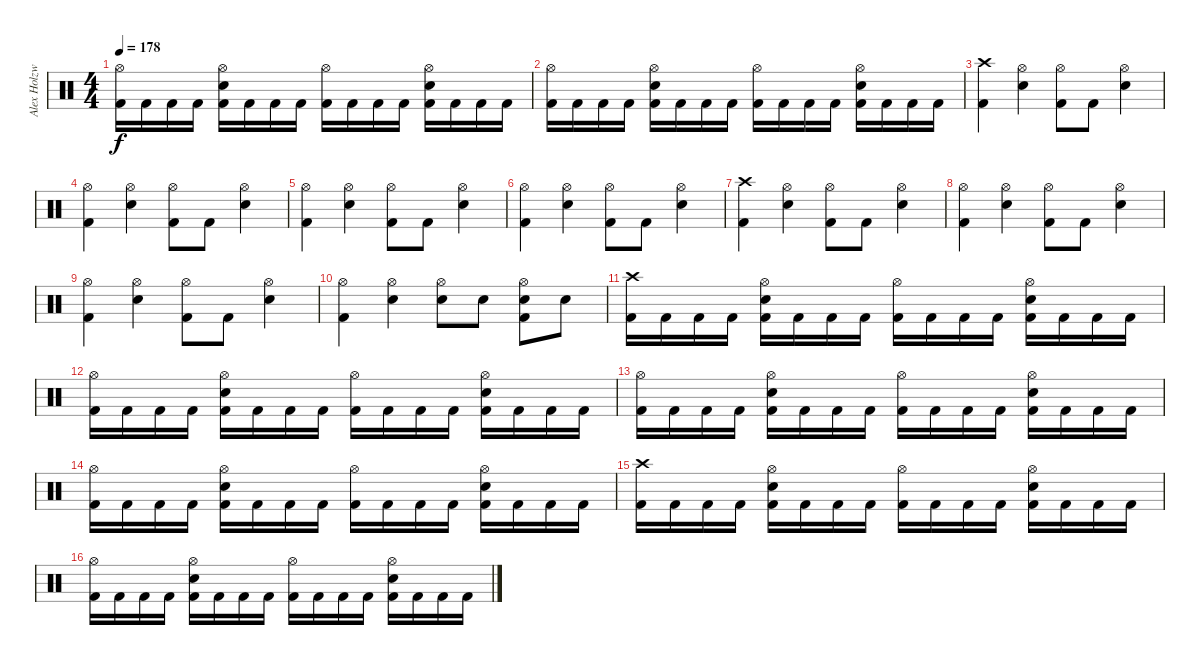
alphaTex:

\track ("Alex Holzwarth" "Alex Holzw") {instrument percussion}
\staff {score}
\articulation defaults
\ts (4 4)
\tempo 178
\clef neutral
\ks c
("Hi-Hat (open)" "Kick (hit) 2").16{dy f} "Kick (hit) 2".16 "Kick (hit) 2".16 "Kick (hit) 2".16 ("Hi-Hat (open)" "Electric Snare (hit)" "Kick (hit) 2").16 "Kick (hit) 2".16 "Kick (hit) 2".16 "Kick (hit) 2".16 ("Hi-Hat (open)" "Kick (hit) 2").16 "Kick (hit) 2".16 "Kick (hit) 2".16 "Kick (hit) 2".16 ("Hi-Hat (open)" "Electric Snare (hit)" "Kick (hit) 2").16 "Kick (hit) 2".16 "Kick (hit) 2".16 "Kick (hit) 2".16 |
("Hi-Hat (open)" "Kick (hit) 2").16 "Kick (hit) 2".16 "Kick (hit) 2".16 "Kick (hit) 2".16 ("Hi-Hat (open)" "Electric Snare (hit)" "Kick (hit) 2").16 "Kick (hit) 2".16 "Kick (hit) 2".16 "Kick (hit) 2".16 ("Hi-Hat (open)" "Kick (hit) 2").16 "Kick (hit) 2".16 "Kick (hit) 2".16 "Kick (hit) 2".16 ("Hi-Hat (open)" "Electric Snare (hit)" "Kick (hit) 2").16 "Kick (hit) 2".16 "Kick (hit) 2".16 "Kick (hit) 2".16 |
("Crash high (hit)" "Kick (hit) 2").4 ("Hi-Hat (open)" "Electric Snare (hit)").4 ("Hi-Hat (open)" "Kick (hit) 2").8 "Kick (hit) 2".8 ("Hi-Hat (open)" "Electric Snare (hit)").4 |
("Hi-Hat (open)" "Kick (hit) 2").4 ("Hi-Hat (open)" "Electric Snare (hit)").4 ("Hi-Hat (open)" "Kick (hit) 2").8 "Kick (hit) 2".8 ("Hi-Hat (open)" "Electric Snare (hit)").4 |
("Hi-Hat (open)" "Kick (hit) 2").4 ("Hi-Hat (open)" "Electric Snare (hit)").4 ("Hi-Hat (open)" "Kick (hit) 2").8 "Kick (hit) 2".8 ("Hi-Hat (open)" "Electric Snare (hit)").4 |
("Hi-Hat (open)" "Kick (hit) 2").4 ("Hi-Hat (open)" "Electric Snare (hit)").4 ("Hi-Hat (open)" "Kick (hit) 2").8 "Kick (hit) 2".8 ("Hi-Hat (open)" "Electric Snare (hit)").4 |
("Crash high (hit)" "Kick (hit) 2").4 ("Hi-Hat (open)" "Electric Snare (hit)").4 ("Hi-Hat (open)" "Kick (hit) 2").8 "Kick (hit) 2".8 ("Hi-Hat (open)" "Electric Snare (hit)").4 |
("Hi-Hat (open)" "Kick (hit) 2").4 ("Hi-Hat (open)" "Electric Snare (hit)").4 ("Hi-Hat (open)" "Kick (hit) 2").8 "Kick (hit) 2".8 ("Hi-Hat (open)" "Electric Snare (hit)").4 |
("Hi-Hat (open)" "Kick (hit) 2").4 ("Hi-Hat (open)" "Electric Snare (hit)").4 ("Hi-Hat (open)" "Kick (hit) 2").8 "Kick (hit) 2".8 ("Hi-Hat (open)" "Electric Snare (hit)").4 |
("Hi-Hat (open)" "Kick (hit) 2").4 ("Hi-Hat (open)" "Electric Snare (hit)").4 ("Hi-Hat (open)" "Electric Snare (hit)").8 "Electric Snare (hit)".8 ("Hi-Hat (open)" "Electric Snare (hit)" "Kick (hit) 2").8 "Electric Snare (hit)".8 |
("Crash high (hit)" "Kick (hit) 2").16 "Kick (hit) 2".16 "Kick (hit) 2".16 "Kick (hit) 2".16 ("Hi-Hat (open)" "Electric Snare (hit)" "Kick (hit) 2").16 "Kick (hit) 2".16 "Kick (hit) 2".16 "Kick (hit) 2".16 ("Hi-Hat (open)" "Kick (hit) 2").16 "Kick (hit) 2".16 "Kick (hit) 2".16 "Kick (hit) 2".16 ("Hi-Hat (open)" "Electric Snare (hit)" "Kick (hit) 2").16 "Kick (hit) 2".16 "Kick (hit) 2".16 "Kick (hit) 2".16 |
("Hi-Hat (open)" "Kick (hit) 2").16 "Kick (hit) 2".16 "Kick (hit) 2".16 "Kick (hit) 2".16 ("Hi-Hat (open)" "Electric Snare (hit)" "Kick (hit) 2").16 "Kick (hit) 2".16 "Kick (hit) 2".16 "Kick (hit) 2".16 ("Hi-Hat (open)" "Kick (hit) 2").16 "Kick (hit) 2".16 "Kick (hit) 2".16 "Kick (hit) 2".16 ("Hi-Hat (open)" "Electric Snare (hit)" "Kick (hit) 2").16 "Kick (hit) 2".16 "Kick (hit) 2".16 "Kick (hit) 2".16 |
("Hi-Hat (open)" "Kick (hit) 2").16 "Kick (hit) 2".16 "Kick (hit) 2".16 "Kick (hit) 2".16 ("Hi-Hat (open)" "Electric Snare (hit)" "Kick (hit) 2").16 "Kick (hit) 2".16 "Kick (hit) 2".16 "Kick (hit) 2".16 ("Hi-Hat (open)" "Kick (hit) 2").16 "Kick (hit) 2".16 "Kick (hit) 2".16 "Kick (hit) 2".16 ("Hi-Hat (open)" "Electric Snare (hit)" "Kick (hit) 2").16 "Kick (hit) 2".16 "Kick (hit) 2".16 "Kick (hit) 2".16 |
("Hi-Hat (open)" "Kick (hit) 2").16 "Kick (hit) 2".16 "Kick (hit) 2".16 "Kick (hit) 2".16 ("Hi-Hat (open)" "Electric Snare (hit)" "Kick (hit) 2").16 "Kick (hit) 2".16 "Kick (hit) 2".16 "Kick (hit) 2".16 ("Hi-Hat (open)" "Kick (hit) 2").16 "Kick (hit) 2".16 "Kick (hit) 2".16 "Kick (hit) 2".16 ("Hi-Hat (open)" "Electric Snare (hit)" "Kick (hit) 2").16 "Kick (hit) 2".16 "Kick (hit) 2".16 "Kick (hit) 2".16 |
("Crash high (hit)" "Kick (hit) 2").16 "Kick (hit) 2".16 "Kick (hit) 2".16 "Kick (hit) 2".16 ("Hi-Hat (open)" "Electric Snare (hit)" "Kick (hit) 2").16 "Kick (hit) 2".16 "Kick (hit) 2".16 "Kick (hit) 2".16 ("Hi-Hat (open)" "Kick (hit) 2").16 "Kick (hit) 2".16 "Kick (hit) 2".16 "Kick (hit) 2".16 ("Hi-Hat (open)" "Electric Snare (hit)" "Kick (hit) 2").16 "Kick (hit) 2".16 "Kick (hit) 2".16 "Kick (hit) 2".16 |
("Hi-Hat (open)" "Kick (hit) 2").16 "Kick (hit) 2".16 "Kick (hit) 2".16 "Kick (hit) 2".16 ("Hi-Hat (open)" "Electric Snare (hit)" "Kick (hit) 2").16 "Kick (hit) 2".16 "Kick (hit) 2".16 "Kick (hit) 2".16 ("Hi-Hat (open)" "Kick (hit) 2").16 "Kick (hit) 2".16 "Kick (hit) 2".16 "Kick (hit) 2".16 ("Hi-Hat (open)" "Electric Snare (hit)" "Kick (hit) 2").16 "Kick (hit) 2".16 "Kick (hit) 2".16 "Kick (hit) 2".16
